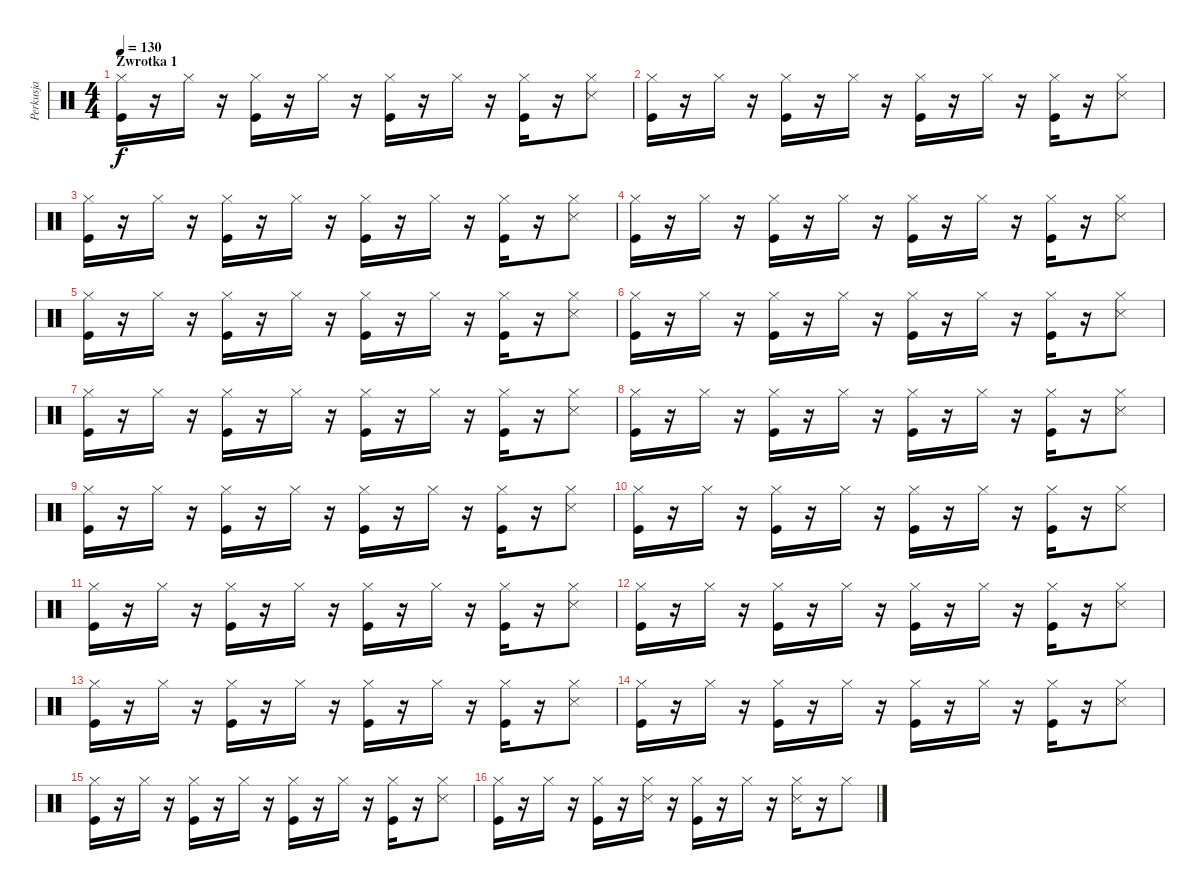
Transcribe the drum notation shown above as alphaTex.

\track ("Perkusja" "Perkusja") {instrument percussion}
\staff {score}
\articulation defaults
\ts (4 4)
\section ("" "Zwrotka 1")
\tempo 130
\clef neutral
\ks c
("Kick (hit)" "Hi-Hat (closed)").16{dy f} r.16 "Hi-Hat (closed)".16 r.16 ("Kick (hit)" "Hi-Hat (closed)").16 r.16 "Hi-Hat (closed)".16 r.16 ("Kick (hit)" "Hi-Hat (closed)").16 r.16 "Hi-Hat (closed)".16 r.16 ("Kick (hit)" "Hi-Hat (closed)").16 r.16 ("Hi-Hat (closed)" "Snare (side stick) 3").8 |
("Kick (hit)" "Hi-Hat (closed)").16 r.16 "Hi-Hat (closed)".16 r.16 ("Kick (hit)" "Hi-Hat (closed)").16 r.16 "Hi-Hat (closed)".16 r.16 ("Kick (hit)" "Hi-Hat (closed)").16 r.16 "Hi-Hat (closed)".16 r.16 ("Kick (hit)" "Hi-Hat (closed)").16 r.16 ("Hi-Hat (closed)" "Snare (side stick) 3").8 |
("Kick (hit)" "Hi-Hat (closed)").16 r.16 "Hi-Hat (closed)".16 r.16 ("Kick (hit)" "Hi-Hat (closed)").16 r.16 "Hi-Hat (closed)".16 r.16 ("Kick (hit)" "Hi-Hat (closed)").16 r.16 "Hi-Hat (closed)".16 r.16 ("Kick (hit)" "Hi-Hat (closed)").16 r.16 ("Hi-Hat (closed)" "Snare (side stick) 3").8 |
("Kick (hit)" "Hi-Hat (closed)").16 r.16 "Hi-Hat (closed)".16 r.16 ("Kick (hit)" "Hi-Hat (closed)").16 r.16 "Hi-Hat (closed)".16 r.16 ("Kick (hit)" "Hi-Hat (closed)").16 r.16 "Hi-Hat (closed)".16 r.16 ("Kick (hit)" "Hi-Hat (closed)").16 r.16 ("Hi-Hat (closed)" "Snare (side stick) 3").8 |
("Kick (hit)" "Hi-Hat (closed)").16 r.16 "Hi-Hat (closed)".16 r.16 ("Kick (hit)" "Hi-Hat (closed)").16 r.16 "Hi-Hat (closed)".16 r.16 ("Kick (hit)" "Hi-Hat (closed)").16 r.16 "Hi-Hat (closed)".16 r.16 ("Kick (hit)" "Hi-Hat (closed)").16 r.16 ("Hi-Hat (closed)" "Snare (side stick) 3").8 |
("Kick (hit)" "Hi-Hat (closed)").16 r.16 "Hi-Hat (closed)".16 r.16 ("Kick (hit)" "Hi-Hat (closed)").16 r.16 "Hi-Hat (closed)".16 r.16 ("Kick (hit)" "Hi-Hat (closed)").16 r.16 "Hi-Hat (closed)".16 r.16 ("Kick (hit)" "Hi-Hat (closed)").16 r.16 ("Hi-Hat (closed)" "Snare (side stick) 3").8 |
("Kick (hit)" "Hi-Hat (closed)").16 r.16 "Hi-Hat (closed)".16 r.16 ("Kick (hit)" "Hi-Hat (closed)").16 r.16 "Hi-Hat (closed)".16 r.16 ("Kick (hit)" "Hi-Hat (closed)").16 r.16 "Hi-Hat (closed)".16 r.16 ("Kick (hit)" "Hi-Hat (closed)").16 r.16 ("Hi-Hat (closed)" "Snare (side stick) 3").8 |
("Kick (hit)" "Hi-Hat (closed)").16 r.16 "Hi-Hat (closed)".16 r.16 ("Kick (hit)" "Hi-Hat (closed)").16 r.16 "Hi-Hat (closed)".16 r.16 ("Kick (hit)" "Hi-Hat (closed)").16 r.16 "Hi-Hat (closed)".16 r.16 ("Kick (hit)" "Hi-Hat (closed)").16 r.16 ("Hi-Hat (closed)" "Snare (side stick) 3").8 |
("Kick (hit)" "Hi-Hat (closed)").16 r.16 "Hi-Hat (closed)".16 r.16 ("Kick (hit)" "Hi-Hat (closed)").16 r.16 "Hi-Hat (closed)".16 r.16 ("Kick (hit)" "Hi-Hat (closed)").16 r.16 "Hi-Hat (closed)".16 r.16 ("Kick (hit)" "Hi-Hat (closed)").16 r.16 ("Hi-Hat (closed)" "Snare (side stick) 3").8 |
("Kick (hit)" "Hi-Hat (closed)").16 r.16 "Hi-Hat (closed)".16 r.16 ("Kick (hit)" "Hi-Hat (closed)").16 r.16 "Hi-Hat (closed)".16 r.16 ("Kick (hit)" "Hi-Hat (closed)").16 r.16 "Hi-Hat (closed)".16 r.16 ("Kick (hit)" "Hi-Hat (closed)").16 r.16 ("Hi-Hat (closed)" "Snare (side stick) 3").8 |
("Kick (hit)" "Hi-Hat (closed)").16 r.16 "Hi-Hat (closed)".16 r.16 ("Kick (hit)" "Hi-Hat (closed)").16 r.16 "Hi-Hat (closed)".16 r.16 ("Kick (hit)" "Hi-Hat (closed)").16 r.16 "Hi-Hat (closed)".16 r.16 ("Kick (hit)" "Hi-Hat (closed)").16 r.16 ("Hi-Hat (closed)" "Snare (side stick) 3").8 |
("Kick (hit)" "Hi-Hat (closed)").16 r.16 "Hi-Hat (closed)".16 r.16 ("Kick (hit)" "Hi-Hat (closed)").16 r.16 "Hi-Hat (closed)".16 r.16 ("Kick (hit)" "Hi-Hat (closed)").16 r.16 "Hi-Hat (closed)".16 r.16 ("Kick (hit)" "Hi-Hat (closed)").16 r.16 ("Hi-Hat (closed)" "Snare (side stick) 3").8 |
("Kick (hit)" "Hi-Hat (closed)").16 r.16 "Hi-Hat (closed)".16 r.16 ("Kick (hit)" "Hi-Hat (closed)").16 r.16 "Hi-Hat (closed)".16 r.16 ("Kick (hit)" "Hi-Hat (closed)").16 r.16 "Hi-Hat (closed)".16 r.16 ("Kick (hit)" "Hi-Hat (closed)").16 r.16 ("Hi-Hat (closed)" "Snare (side stick) 3").8 |
("Kick (hit)" "Hi-Hat (closed)").16 r.16 "Hi-Hat (closed)".16 r.16 ("Kick (hit)" "Hi-Hat (closed)").16 r.16 "Hi-Hat (closed)".16 r.16 ("Kick (hit)" "Hi-Hat (closed)").16 r.16 "Hi-Hat (closed)".16 r.16 ("Kick (hit)" "Hi-Hat (closed)").16 r.16 ("Hi-Hat (closed)" "Snare (side stick) 3").8 |
("Kick (hit)" "Hi-Hat (closed)").16 r.16 "Hi-Hat (closed)".16 r.16 ("Kick (hit)" "Hi-Hat (closed)").16 r.16 "Hi-Hat (closed)".16 r.16 ("Kick (hit)" "Hi-Hat (closed)").16 r.16 "Hi-Hat (closed)".16 r.16 ("Kick (hit)" "Hi-Hat (closed)").16 r.16 ("Hi-Hat (closed)" "Snare (side stick) 3").8 |
("Kick (hit)" "Hi-Hat (closed)").16 r.16 "Hi-Hat (closed)".16 r.16 ("Kick (hit)" "Hi-Hat (closed)").16 r.16 ("Hi-Hat (closed)" "Snare (side stick) 3").16 r.16 ("Kick (hit)" "Hi-Hat (closed)").16 r.16 "Hi-Hat (closed)".16 r.16 ("Snare (side stick) 3" "Hi-Hat (closed)").16 r.16 "Hi-Hat (closed)".8
